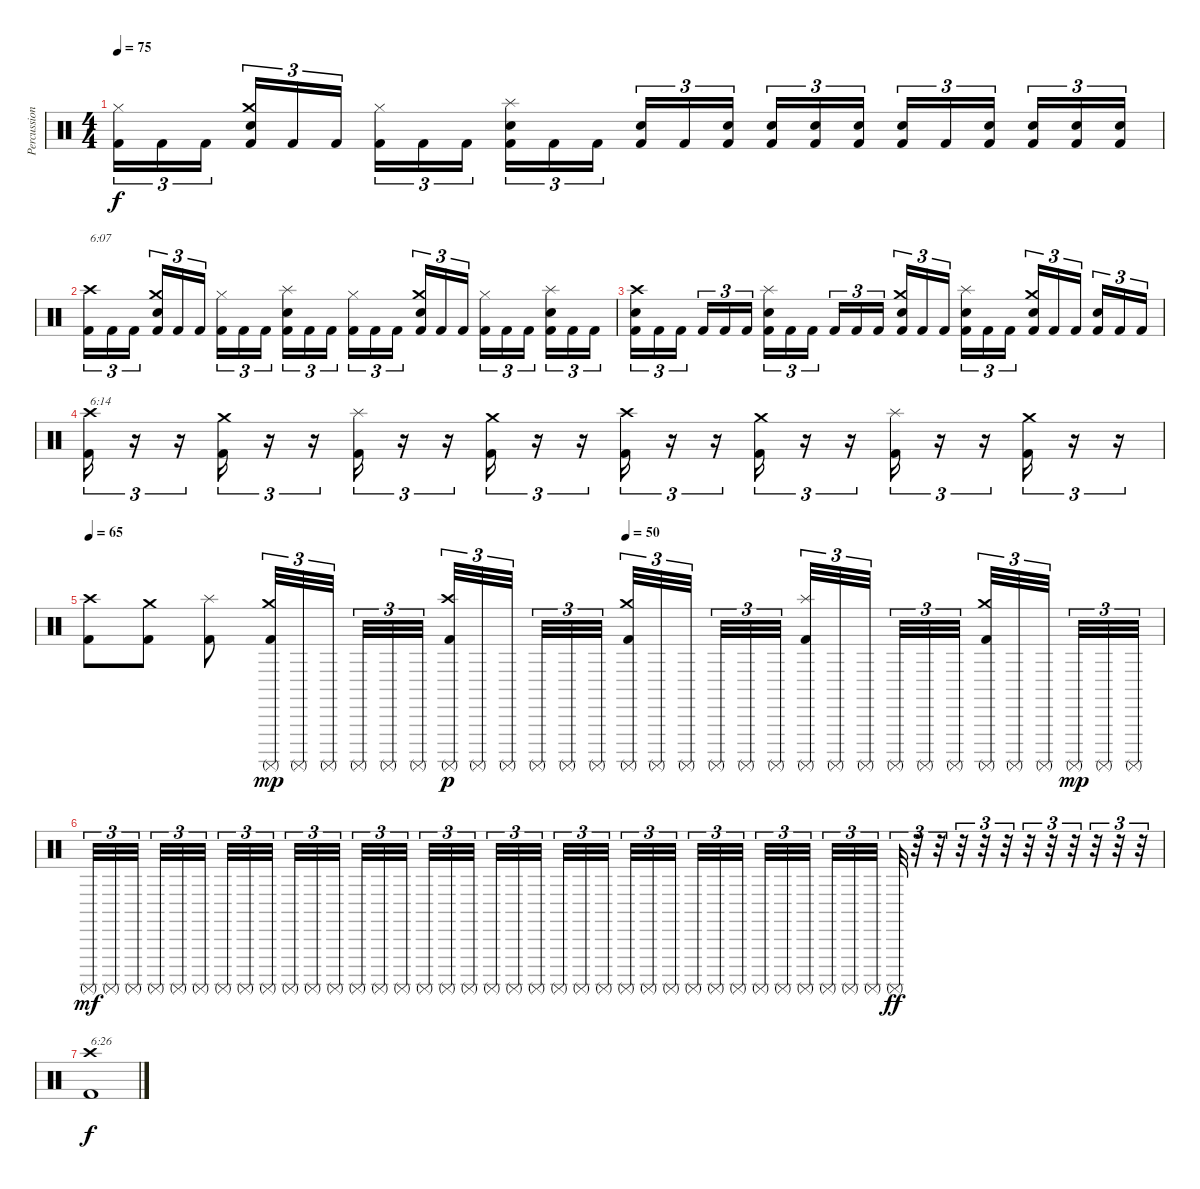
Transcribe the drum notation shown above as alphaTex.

\track ("Percussion" "Percussion") {instrument percussion}
\staff {score}
\articulation defaults
\ts (4 4)
\tempo 75
\clef neutral
\ks c
("Hi-Hat (closed)" "Kick (hit) 2").16{tu (3 2) dy f} "Kick (hit) 2".16{tu (3 2)} "Kick (hit) 2".16{tu (3 2)} ("Crash medium (hit)" "Snare (hit) 2" "Kick (hit) 2").16{tu (3 2)} "Kick (hit) 2".16{tu (3 2)} "Kick (hit) 2".16{tu (3 2)} ("Hi-Hat (closed)" "Kick (hit) 2").16{tu (3 2)} "Kick (hit) 2".16{tu (3 2)} "Kick (hit) 2".16{tu (3 2)} ("Splash (hit)" "Snare (hit) 2" "Kick (hit) 2").16{tu (3 2)} "Kick (hit) 2".16{tu (3 2)} "Kick (hit) 2".16{tu (3 2)} ("Snare (hit) 2" "Kick (hit) 2").16{tu (3 2)} "Kick (hit) 2".16{tu (3 2)} ("Snare (hit) 2" "Kick (hit) 2").16{tu (3 2)} ("Snare (hit) 2" "Kick (hit) 2").16{tu (3 2)} ("Snare (hit) 2" "Kick (hit) 2").16{tu (3 2)} ("Snare (hit) 2" "Kick (hit) 2").16{tu (3 2)} ("Snare (hit) 2" "Kick (hit) 2").16{tu (3 2)} "Kick (hit) 2".16{tu (3 2)} ("Snare (hit) 2" "Kick (hit) 2").16{tu (3 2)} ("Snare (hit) 2" "Kick (hit) 2").16{tu (3 2)} ("Snare (hit) 2" "Kick (hit) 2").16{tu (3 2)} ("Snare (hit) 2" "Kick (hit) 2").16{tu (3 2)} |
("Crash high (hit)" "Kick (hit) 2").16{tu (3 2) txt "6:07"} "Kick (hit) 2".16{tu (3 2)} "Kick (hit) 2".16{tu (3 2)} ("Crash medium (hit)" "Snare (hit) 2" "Kick (hit) 2").16{tu (3 2)} "Kick (hit) 2".16{tu (3 2)} "Kick (hit) 2".16{tu (3 2)} ("Hi-Hat (closed)" "Kick (hit) 2").16{tu (3 2)} "Kick (hit) 2".16{tu (3 2)} "Kick (hit) 2".16{tu (3 2)} ("Splash (hit)" "Snare (hit) 2" "Kick (hit) 2").16{tu (3 2)} "Kick (hit) 2".16{tu (3 2)} "Kick (hit) 2".16{tu (3 2)} ("Hi-Hat (closed)" "Kick (hit) 2").16{tu (3 2)} "Kick (hit) 2".16{tu (3 2)} "Kick (hit) 2".16{tu (3 2)} ("Crash medium (hit)" "Snare (hit) 2" "Kick (hit) 2").16{tu (3 2)} "Kick (hit) 2".16{tu (3 2)} "Kick (hit) 2".16{tu (3 2)} ("Hi-Hat (closed)" "Kick (hit) 2").16{tu (3 2)} "Kick (hit) 2".16{tu (3 2)} "Kick (hit) 2".16{tu (3 2)} ("Splash (hit)" "Snare (hit) 2" "Kick (hit) 2").16{tu (3 2)} "Kick (hit) 2".16{tu (3 2)} "Kick (hit) 2".16{tu (3 2)} |
("Crash high (hit)" "Snare (hit) 2" "Kick (hit) 2").16{tu (3 2)} "Kick (hit) 2".16{tu (3 2)} "Kick (hit) 2".16{tu (3 2)} "Kick (hit) 2".16{tu (3 2)} "Kick (hit) 2".16{tu (3 2)} "Kick (hit) 2".16{tu (3 2)} ("Splash (hit)" "Snare (hit) 2" "Kick (hit) 2").16{tu (3 2)} "Kick (hit) 2".16{tu (3 2)} "Kick (hit) 2".16{tu (3 2)} "Kick (hit) 2".16{tu (3 2)} "Kick (hit) 2".16{tu (3 2)} "Kick (hit) 2".16{tu (3 2)} ("Crash medium (hit)" "Snare (hit) 2" "Kick (hit) 2").16{tu (3 2)} "Kick (hit) 2".16{tu (3 2)} "Kick (hit) 2".16{tu (3 2)} ("Splash (hit)" "Snare (hit) 2" "Kick (hit) 2").16{tu (3 2)} "Kick (hit) 2".16{tu (3 2)} "Kick (hit) 2".16{tu (3 2)} ("Crash medium (hit)" "Snare (hit) 2" "Kick (hit) 2").16{tu (3 2)} "Kick (hit) 2".16{tu (3 2)} "Kick (hit) 2".16{tu (3 2)} ("Snare (hit) 2" "Kick (hit) 2").16{tu (3 2)} "Kick (hit) 2".16{tu (3 2)} "Kick (hit) 2".16{tu (3 2)} |
("Crash high (hit)" "Kick (hit) 2").16{tu (3 2) txt "6:14"} r.16{tu (3 2)} r.16{tu (3 2)} ("Crash medium (hit)" "Kick (hit) 2").16{tu (3 2)} r.16{tu (3 2)} r.16{tu (3 2)} ("Splash (hit)" "Kick (hit) 2").16{tu (3 2)} r.16{tu (3 2)} r.16{tu (3 2)} ("Crash medium (hit)" "Kick (hit) 2").16{tu (3 2)} r.16{tu (3 2)} r.16{tu (3 2)} ("Crash high (hit)" "Kick (hit) 2").16{tu (3 2)} r.16{tu (3 2)} r.16{tu (3 2)} ("Crash medium (hit)" "Kick (hit) 2").16{tu (3 2)} r.16{tu (3 2)} r.16{tu (3 2)} ("Splash (hit)" "Kick (hit) 2").16{tu (3 2)} r.16{tu (3 2)} r.16{tu (3 2)} ("Crash medium (hit)" "Kick (hit) 2").16{tu (3 2)} r.16{tu (3 2)} r.16{tu (3 2)} |
\tempo 65
\tempo (50 0.5)
("Crash high (hit)" "Kick (hit) 2").8 ("Crash medium (hit)" "Kick (hit) 2").8 ("Splash (hit)" "Kick (hit) 2").8 ("Crash medium (hit)" "Surdo (mute)" "Kick (hit) 2").32{tu (3 2) dy mp} "Surdo (mute)".32{tu (3 2)} "Surdo (mute)".32{tu (3 2)} "Surdo (mute)".32{tu (3 2)} "Surdo (mute)".32{tu (3 2)} "Surdo (mute)".32{tu (3 2)} ("Crash high (hit)" "Surdo (mute)" "Kick (hit) 2").32{tu (3 2) dy p} "Surdo (mute)".32{tu (3 2)} "Surdo (mute)".32{tu (3 2)} "Surdo (mute)".32{tu (3 2)} "Surdo (mute)".32{tu (3 2)} "Surdo (mute)".32{tu (3 2)} ("Crash medium (hit)" "Surdo (mute)" "Kick (hit) 2").32{tu (3 2)} "Surdo (mute)".32{tu (3 2)} "Surdo (mute)".32{tu (3 2)} "Surdo (mute)".32{tu (3 2)} "Surdo (mute)".32{tu (3 2)} "Surdo (mute)".32{tu (3 2)} ("Splash (hit)" "Surdo (mute)" "Kick (hit) 2").32{tu (3 2)} "Surdo (mute)".32{tu (3 2)} "Surdo (mute)".32{tu (3 2)} "Surdo (mute)".32{tu (3 2)} "Surdo (mute)".32{tu (3 2)} "Surdo (mute)".32{tu (3 2)} ("Crash medium (hit)" "Surdo (mute)" "Kick (hit) 2").32{tu (3 2)} "Surdo (mute)".32{tu (3 2)} "Surdo (mute)".32{tu (3 2)} "Surdo (mute)".32{tu (3 2) dy mp} "Surdo (mute)".32{tu (3 2)} "Surdo (mute)".32{tu (3 2)} |
"Surdo (mute)".32{tu (3 2) dy mf} "Surdo (mute)".32{tu (3 2)} "Surdo (mute)".32{tu (3 2)} "Surdo (mute)".32{tu (3 2)} "Surdo (mute)".32{tu (3 2)} "Surdo (mute)".32{tu (3 2)} "Surdo (mute)".32{tu (3 2)} "Surdo (mute)".32{tu (3 2)} "Surdo (mute)".32{tu (3 2)} "Surdo (mute)".32{tu (3 2)} "Surdo (mute)".32{tu (3 2)} "Surdo (mute)".32{tu (3 2)} "Surdo (mute)".32{tu (3 2)} "Surdo (mute)".32{tu (3 2)} "Surdo (mute)".32{tu (3 2)} "Surdo (mute)".32{tu (3 2)} "Surdo (mute)".32{tu (3 2)} "Surdo (mute)".32{tu (3 2)} "Surdo (mute)".32{tu (3 2)} "Surdo (mute)".32{tu (3 2)} "Surdo (mute)".32{tu (3 2)} "Surdo (mute)".32{tu (3 2)} "Surdo (mute)".32{tu (3 2)} "Surdo (mute)".32{tu (3 2)} "Surdo (mute)".32{tu (3 2)} "Surdo (mute)".32{tu (3 2)} "Surdo (mute)".32{tu (3 2)} "Surdo (mute)".32{tu (3 2)} "Surdo (mute)".32{tu (3 2)} "Surdo (mute)".32{tu (3 2)} "Surdo (mute)".32{tu (3 2)} "Surdo (mute)".32{tu (3 2)} "Surdo (mute)".32{tu (3 2)} "Surdo (mute)".32{tu (3 2)} "Surdo (mute)".32{tu (3 2)} "Surdo (mute)".32{tu (3 2)} "Surdo (mute)".32{tu (3 2) dy ff} r.32{tu (3 2)} r.32{tu (3 2)} r.32{tu (3 2)} r.32{tu (3 2)} r.32{tu (3 2)} r.32{tu (3 2)} r.32{tu (3 2)} r.32{tu (3 2)} r.32{tu (3 2)} r.32{tu (3 2)} r.32{tu (3 2)} |
("Crash high (hit)" "Kick (hit) 2").1{txt "6:26" dy f}
